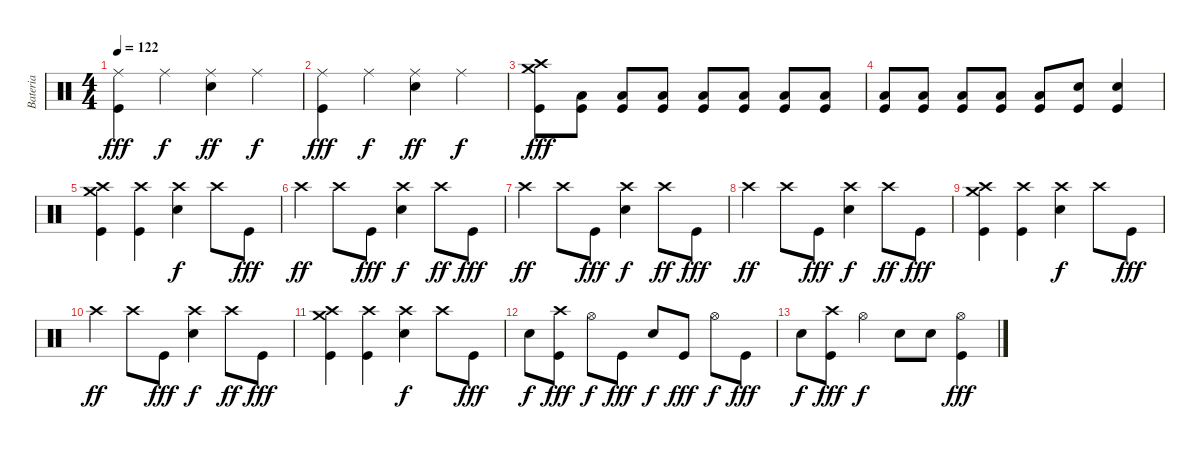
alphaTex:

\track ("Bateria" "Bateria") {instrument percussion}
\staff {score}
\articulation defaults
\ts (4 4)
\tempo 122
\clef neutral
\ks c
("Ride (middle)" "Kick (hit)").4{dy fff} "Ride (middle)".4{dy f} ("Ride (middle)" "Snare (hit) 2").4{dy ff} "Ride (middle)".4{dy f} |
("Ride (middle)" "Kick (hit)").4{dy fff} "Ride (middle)".4{dy f} ("Ride (middle)" "Snare (hit) 2").4{dy ff} "Ride (middle)".4{dy f} |
("Crash high (hit)" "Crash medium (hit)" "Kick (hit)").8{dy fff} ("Low Tom (hit)" "Kick (hit)").8 ("Low Tom (hit)" "Kick (hit)").8 ("Low Tom (hit)" "Kick (hit)").8 ("Low Tom (hit)" "Kick (hit)").8 ("Low Tom (hit)" "Kick (hit)").8 ("Low Tom (hit)" "Kick (hit)").8 ("Low Tom (hit)" "Kick (hit)").8 |
("Low Tom (hit)" "Kick (hit)").8 ("Low Tom (hit)" "Kick (hit)").8 ("Low Tom (hit)" "Kick (hit)").8 ("Low Tom (hit)" "Kick (hit)").8 ("Low Tom (hit)" "Kick (hit)").8 ("Snare (hit) 2" "Kick (hit)").8 ("Snare (hit) 2" "Kick (hit)").4 |
("Crash high (hit)" "Crash medium (hit)" "Kick (hit)").4 ("Crash high (hit)" "Kick (hit)").4 ("Crash high (hit)" "Snare (hit) 2").4{dy f} "Crash high (hit)".8 "Kick (hit)".8{dy fff} |
"Crash high (hit)".4{dy ff} "Crash high (hit)".8 "Kick (hit)".8{dy fff} ("Crash high (hit)" "Snare (hit) 2").4{dy f} "Crash high (hit)".8{dy ff} "Kick (hit)".8{dy fff} |
"Crash high (hit)".4{dy ff} "Crash high (hit)".8 "Kick (hit)".8{dy fff} ("Crash high (hit)" "Snare (hit) 2").4{dy f} "Crash high (hit)".8{dy ff} "Kick (hit)".8{dy fff} |
"Crash high (hit)".4{dy ff} "Crash high (hit)".8 "Kick (hit)".8{dy fff} ("Crash high (hit)" "Snare (hit) 2").4{dy f} "Crash high (hit)".8{dy ff} "Kick (hit)".8{dy fff} |
("Crash high (hit)" "Crash medium (hit)" "Kick (hit)").4 ("Crash high (hit)" "Kick (hit)").4 ("Crash high (hit)" "Snare (hit) 2").4{dy f} "Crash high (hit)".8 "Kick (hit)".8{dy fff} |
"Crash high (hit)".4{dy ff} "Crash high (hit)".8 "Kick (hit)".8{dy fff} ("Crash high (hit)" "Snare (hit) 2").4{dy f} "Crash high (hit)".8{dy ff} "Kick (hit)".8{dy fff} |
("Crash high (hit)" "Crash medium (hit)" "Kick (hit)").4 ("Crash high (hit)" "Kick (hit)").4 ("Crash high (hit)" "Snare (hit) 2").4{dy f} "Crash high (hit)".8 "Kick (hit)".8{dy fff} |
"Snare (hit) 2".8{dy f} ("Crash high (hit)" "Kick (hit)").8{dy fff} "Hi-Hat (open)".8{dy f} "Kick (hit)".8{dy fff} "Snare (hit) 2".8{dy f} "Kick (hit)".8{dy fff} "Hi-Hat (open)".8{dy f} "Kick (hit)".8{dy fff} |
"Snare (hit) 2".8{dy f} ("Crash high (hit)" "Kick (hit)").8{dy fff} "Hi-Hat (open)".4{dy f} "Snare (hit) 2".8 "Snare (hit) 2".8 ("Hi-Hat (open)" "Kick (hit)").4{dy fff}
